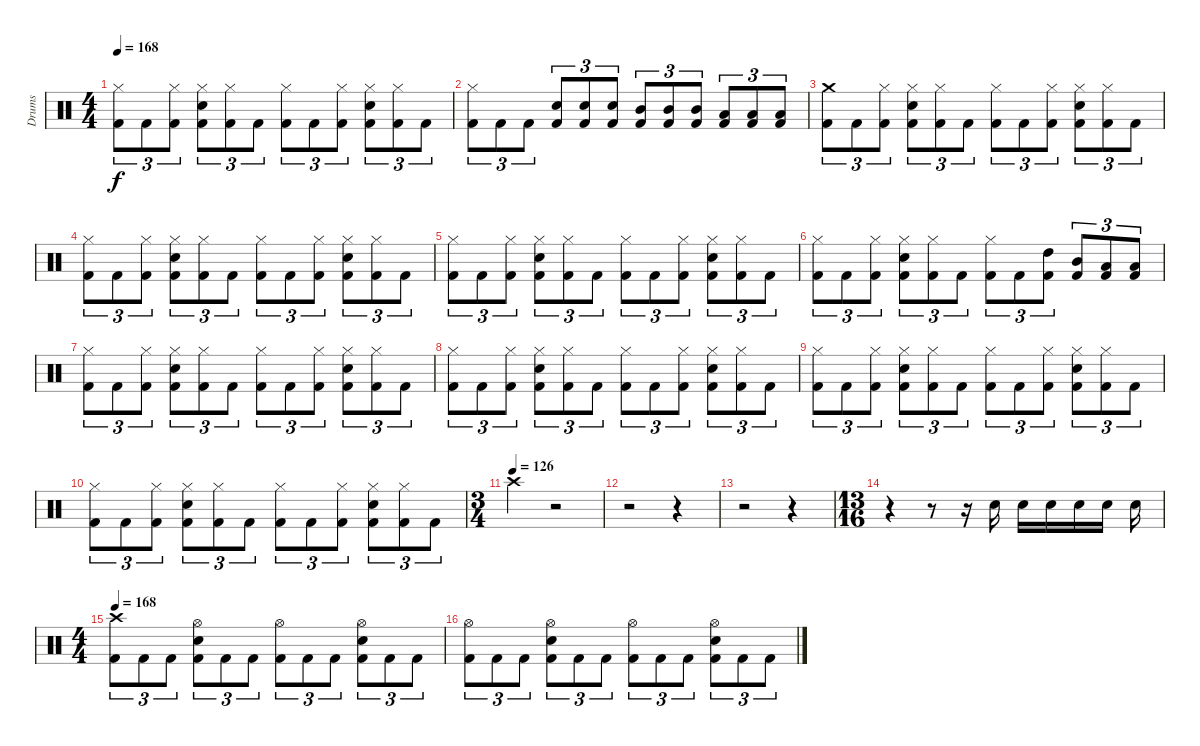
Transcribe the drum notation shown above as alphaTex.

\track ("Drums" "Drums") {instrument percussion}
\staff {score}
\articulation defaults
\ts (4 4)
\tempo 168
\clef neutral
\ks c
("Hi-Hat (closed)" "Kick (hit) 2").8{tu (3 2) dy f} "Kick (hit) 2".8{tu (3 2)} ("Hi-Hat (closed)" "Kick (hit) 2").8{tu (3 2)} ("Hi-Hat (closed)" "Electric Snare (hit)" "Kick (hit) 2").8{tu (3 2)} ("Hi-Hat (closed)" "Kick (hit) 2").8{tu (3 2)} "Kick (hit) 2".8{tu (3 2)} ("Hi-Hat (closed)" "Kick (hit) 2").8{tu (3 2)} "Kick (hit) 2".8{tu (3 2)} ("Hi-Hat (closed)" "Kick (hit) 2").8{tu (3 2)} ("Hi-Hat (closed)" "Electric Snare (hit)" "Kick (hit) 2").8{tu (3 2)} ("Hi-Hat (closed)" "Kick (hit) 2").8{tu (3 2)} "Kick (hit) 2".8{tu (3 2)} |
("Hi-Hat (closed)" "Kick (hit) 2").8{tu (3 2)} "Kick (hit) 2".8{tu (3 2)} "Kick (hit) 2".8{tu (3 2)} ("Electric Snare (hit)" "Kick (hit) 2").8{tu (3 2)} ("Electric Snare (hit)" "Kick (hit) 2").8{tu (3 2)} ("Electric Snare (hit)" "Kick (hit) 2").8{tu (3 2)} ("Mid Tom (hit)" "Kick (hit) 2").8{tu (3 2)} ("Mid Tom (hit)" "Kick (hit) 2").8{tu (3 2)} ("Mid Tom (hit)" "Kick (hit) 2").8{tu (3 2)} ("Low Tom (hit)" "Kick (hit) 2").8{tu (3 2)} ("Low Tom (hit)" "Kick (hit) 2").8{tu (3 2)} ("Low Tom (hit)" "Kick (hit) 2").8{tu (3 2)} |
("Crash medium (hit)" "Kick (hit) 2").8{tu (3 2)} "Kick (hit) 2".8{tu (3 2)} ("Hi-Hat (closed)" "Kick (hit) 2").8{tu (3 2)} ("Hi-Hat (closed)" "Electric Snare (hit)" "Kick (hit) 2").8{tu (3 2)} ("Hi-Hat (closed)" "Kick (hit) 2").8{tu (3 2)} "Kick (hit) 2".8{tu (3 2)} ("Hi-Hat (closed)" "Kick (hit) 2").8{tu (3 2)} "Kick (hit) 2".8{tu (3 2)} ("Hi-Hat (closed)" "Kick (hit) 2").8{tu (3 2)} ("Hi-Hat (closed)" "Electric Snare (hit)" "Kick (hit) 2").8{tu (3 2)} ("Hi-Hat (closed)" "Kick (hit) 2").8{tu (3 2)} "Kick (hit) 2".8{tu (3 2)} |
("Hi-Hat (closed)" "Kick (hit) 2").8{tu (3 2)} "Kick (hit) 2".8{tu (3 2)} ("Hi-Hat (closed)" "Kick (hit) 2").8{tu (3 2)} ("Hi-Hat (closed)" "Electric Snare (hit)" "Kick (hit) 2").8{tu (3 2)} ("Hi-Hat (closed)" "Kick (hit) 2").8{tu (3 2)} "Kick (hit) 2".8{tu (3 2)} ("Hi-Hat (closed)" "Kick (hit) 2").8{tu (3 2)} "Kick (hit) 2".8{tu (3 2)} ("Hi-Hat (closed)" "Kick (hit) 2").8{tu (3 2)} ("Hi-Hat (closed)" "Electric Snare (hit)" "Kick (hit) 2").8{tu (3 2)} ("Hi-Hat (closed)" "Kick (hit) 2").8{tu (3 2)} "Kick (hit) 2".8{tu (3 2)} |
("Hi-Hat (closed)" "Kick (hit) 2").8{tu (3 2)} "Kick (hit) 2".8{tu (3 2)} ("Hi-Hat (closed)" "Kick (hit) 2").8{tu (3 2)} ("Hi-Hat (closed)" "Electric Snare (hit)" "Kick (hit) 2").8{tu (3 2)} ("Hi-Hat (closed)" "Kick (hit) 2").8{tu (3 2)} "Kick (hit) 2".8{tu (3 2)} ("Hi-Hat (closed)" "Kick (hit) 2").8{tu (3 2)} "Kick (hit) 2".8{tu (3 2)} ("Hi-Hat (closed)" "Kick (hit) 2").8{tu (3 2)} ("Hi-Hat (closed)" "Electric Snare (hit)" "Kick (hit) 2").8{tu (3 2)} ("Hi-Hat (closed)" "Kick (hit) 2").8{tu (3 2)} "Kick (hit) 2".8{tu (3 2)} |
("Hi-Hat (closed)" "Kick (hit) 2").8{tu (3 2)} "Kick (hit) 2".8{tu (3 2)} ("Hi-Hat (closed)" "Kick (hit) 2").8{tu (3 2)} ("Hi-Hat (closed)" "Electric Snare (hit)" "Kick (hit) 2").8{tu (3 2)} ("Hi-Hat (closed)" "Kick (hit) 2").8{tu (3 2)} "Kick (hit) 2".8{tu (3 2)} ("Hi-Hat (closed)" "Kick (hit) 2").8{tu (3 2)} "Kick (hit) 2".8{tu (3 2)} ("High Tom (hit)" "Kick (hit) 2").8{tu (3 2)} ("Mid Tom (hit)" "Kick (hit) 2").8{tu (3 2)} ("Low Tom (hit)" "Kick (hit) 2").8{tu (3 2)} ("Low Tom (hit)" "Kick (hit) 2").8{tu (3 2)} |
("Hi-Hat (closed)" "Kick (hit) 2").8{tu (3 2)} "Kick (hit) 2".8{tu (3 2)} ("Hi-Hat (closed)" "Kick (hit) 2").8{tu (3 2)} ("Hi-Hat (closed)" "Electric Snare (hit)" "Kick (hit) 2").8{tu (3 2)} ("Hi-Hat (closed)" "Kick (hit) 2").8{tu (3 2)} "Kick (hit) 2".8{tu (3 2)} ("Hi-Hat (closed)" "Kick (hit) 2").8{tu (3 2)} "Kick (hit) 2".8{tu (3 2)} ("Hi-Hat (closed)" "Kick (hit) 2").8{tu (3 2)} ("Hi-Hat (closed)" "Electric Snare (hit)" "Kick (hit) 2").8{tu (3 2)} ("Hi-Hat (closed)" "Kick (hit) 2").8{tu (3 2)} "Kick (hit) 2".8{tu (3 2)} |
("Hi-Hat (closed)" "Kick (hit) 2").8{tu (3 2)} "Kick (hit) 2".8{tu (3 2)} ("Hi-Hat (closed)" "Kick (hit) 2").8{tu (3 2)} ("Hi-Hat (closed)" "Electric Snare (hit)" "Kick (hit) 2").8{tu (3 2)} ("Hi-Hat (closed)" "Kick (hit) 2").8{tu (3 2)} "Kick (hit) 2".8{tu (3 2)} ("Hi-Hat (closed)" "Kick (hit) 2").8{tu (3 2)} "Kick (hit) 2".8{tu (3 2)} ("Hi-Hat (closed)" "Kick (hit) 2").8{tu (3 2)} ("Hi-Hat (closed)" "Electric Snare (hit)" "Kick (hit) 2").8{tu (3 2)} ("Hi-Hat (closed)" "Kick (hit) 2").8{tu (3 2)} "Kick (hit) 2".8{tu (3 2)} |
("Hi-Hat (closed)" "Kick (hit) 2").8{tu (3 2)} "Kick (hit) 2".8{tu (3 2)} ("Hi-Hat (closed)" "Kick (hit) 2").8{tu (3 2)} ("Hi-Hat (closed)" "Electric Snare (hit)" "Kick (hit) 2").8{tu (3 2)} ("Hi-Hat (closed)" "Kick (hit) 2").8{tu (3 2)} "Kick (hit) 2".8{tu (3 2)} ("Hi-Hat (closed)" "Kick (hit) 2").8{tu (3 2)} "Kick (hit) 2".8{tu (3 2)} ("Hi-Hat (closed)" "Kick (hit) 2").8{tu (3 2)} ("Hi-Hat (closed)" "Electric Snare (hit)" "Kick (hit) 2").8{tu (3 2)} ("Hi-Hat (closed)" "Kick (hit) 2").8{tu (3 2)} "Kick (hit) 2".8{tu (3 2)} |
("Hi-Hat (closed)" "Kick (hit) 2").8{tu (3 2)} "Kick (hit) 2".8{tu (3 2)} ("Hi-Hat (closed)" "Kick (hit) 2").8{tu (3 2)} ("Hi-Hat (closed)" "Electric Snare (hit)" "Kick (hit) 2").8{tu (3 2)} ("Hi-Hat (closed)" "Kick (hit) 2").8{tu (3 2)} "Kick (hit) 2".8{tu (3 2)} ("Hi-Hat (closed)" "Kick (hit) 2").8{tu (3 2)} "Kick (hit) 2".8{tu (3 2)} ("Hi-Hat (closed)" "Kick (hit) 2").8{tu (3 2)} ("Hi-Hat (closed)" "Electric Snare (hit)" "Kick (hit) 2").8{tu (3 2)} ("Hi-Hat (closed)" "Kick (hit) 2").8{tu (3 2)} "Kick (hit) 2".8{tu (3 2)} |
\ts (3 4)
\tempo (126)
"Crash high (hit)".4 r.2 |
r.2 r.4 |
r.2 r.4 |
\ts (13 16)
r.4 r.8 r.16 "Electric Snare (hit)".16 "Electric Snare (hit)".16 "Electric Snare (hit)".16 "Electric Snare (hit)".16 "Electric Snare (hit)".16 "Electric Snare (hit)".16 |
\ts (4 4)
\tempo 168
("Crash high (hit)" "Kick (hit) 2").8{tu (3 2)} "Kick (hit) 2".8{tu (3 2)} "Kick (hit) 2".8{tu (3 2)} ("Hi-Hat (open)" "Electric Snare (hit)" "Kick (hit) 2").8{tu (3 2)} "Kick (hit) 2".8{tu (3 2)} "Kick (hit) 2".8{tu (3 2)} ("Hi-Hat (open)" "Kick (hit) 2").8{tu (3 2)} "Kick (hit) 2".8{tu (3 2)} "Kick (hit) 2".8{tu (3 2)} ("Hi-Hat (open)" "Electric Snare (hit)" "Kick (hit) 2").8{tu (3 2)} "Kick (hit) 2".8{tu (3 2)} "Kick (hit) 2".8{tu (3 2)} |
("Hi-Hat (open)" "Kick (hit) 2").8{tu (3 2)} "Kick (hit) 2".8{tu (3 2)} "Kick (hit) 2".8{tu (3 2)} ("Hi-Hat (open)" "Electric Snare (hit)" "Kick (hit) 2").8{tu (3 2)} "Kick (hit) 2".8{tu (3 2)} "Kick (hit) 2".8{tu (3 2)} ("Hi-Hat (open)" "Kick (hit) 2").8{tu (3 2)} "Kick (hit) 2".8{tu (3 2)} "Kick (hit) 2".8{tu (3 2)} ("Hi-Hat (open)" "Electric Snare (hit)" "Kick (hit) 2").8{tu (3 2)} "Kick (hit) 2".8{tu (3 2)} "Kick (hit) 2".8{tu (3 2)}
